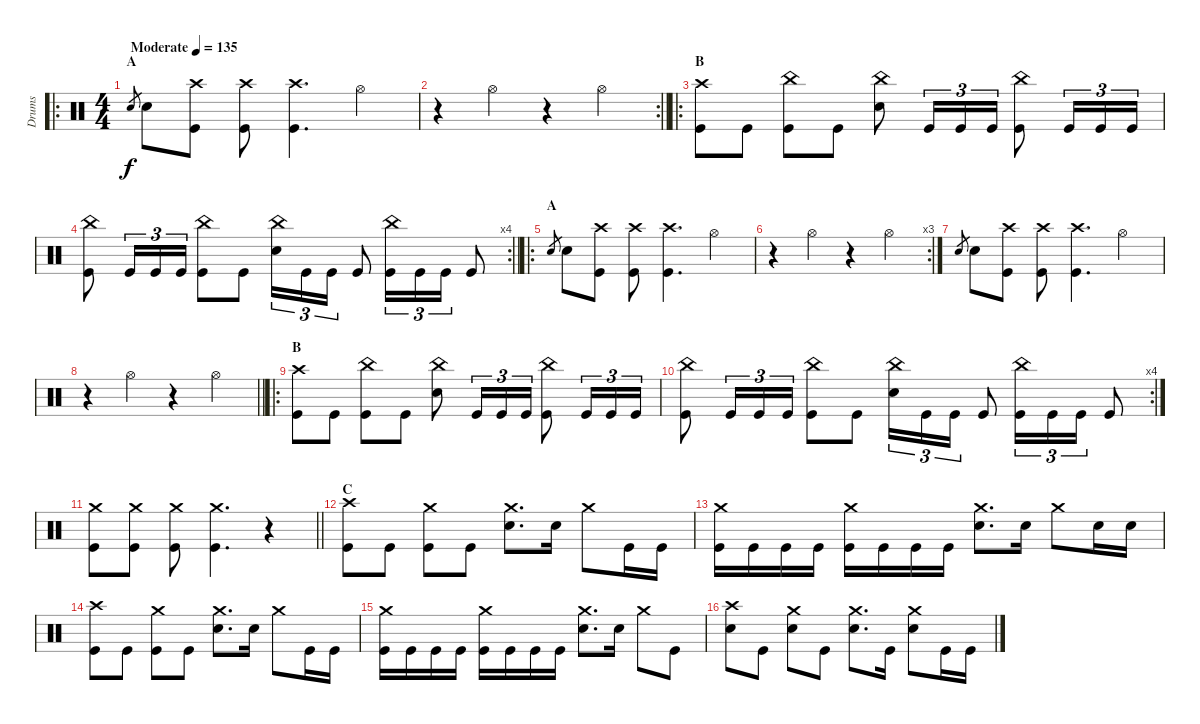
\track ("Drums" "Drums") {instrument percussion}
\staff {score}
\articulation defaults
\ro
\ts (4 4)
\section ("" "A")
\tempo (135 "Moderate")
\clef neutral
\ks c "Electric Snare (hit)".8{gr dy f} "Electric Snare (hit)".8
("Crash high (hit)" "Kick (hit)").8 ("Crash high (hit)" "Kick (hit)").8 ("Crash high (hit)" "Kick (hit)").4{d} "Hi-Hat (open)".4 |
\rc 2
\barLineRight lightlight
r.4 "Hi-Hat (open)".4 r.4 "Hi-Hat (open)".4 |
\ro
\section ("" "B")
("Crash high (hit)" "Kick (hit)").8 "Kick (hit)".8 ("China (hit)" "Kick (hit)").8 "Kick (hit)".8 ("China (hit)" "Electric Snare (hit)").8 "Kick (hit)".16{tu (3 2)} "Kick (hit)".16{tu (3 2)} "Kick (hit)".16{tu (3 2)} ("China (hit)" "Kick (hit)").8 "Kick (hit)".16{tu (3 2)} "Kick (hit)".16{tu (3 2)} "Kick (hit)".16{tu (3 2)} |
\rc 4
\barLineRight lightlight
("China (hit)" "Kick (hit)").8 "Kick (hit)".16{tu (3 2)} "Kick (hit)".16{tu (3 2)} "Kick (hit)".16{tu (3 2)} ("China (hit)" "Kick (hit)").8 "Kick (hit)".8 ("China (hit)" "Electric Snare (hit)").16{tu (3 2)} "Kick (hit)".16{tu (3 2)} "Kick (hit)".16{tu (3 2)} "Kick (hit)".8 ("China (hit)" "Kick (hit)").16{tu (3 2)} "Kick (hit)".16{tu (3 2)} "Kick (hit)".16{tu (3 2)} "Kick (hit)".8 |
\ro
\section ("" "A")
"Electric Snare (hit)".8{gr} "Electric Snare (hit)".8 ("Crash high (hit)" "Kick (hit)").8 ("Crash high (hit)" "Kick (hit)").8 ("Crash high (hit)" "Kick (hit)").4{d} "Hi-Hat (open)".4 |
\rc 3
r.4 "Hi-Hat (open)".4 r.4 "Hi-Hat (open)".4 |
"Electric Snare (hit)".8{gr} "Electric Snare (hit)".8 ("Crash high (hit)" "Kick (hit)").8 ("Crash high (hit)" "Kick (hit)").8 ("Crash high (hit)" "Kick (hit)").4{d} "Hi-Hat (open)".4 |
\barLineRight lightlight
r.4 "Hi-Hat (open)".4 r.4 "Hi-Hat (open)".4 |
\ro
\section ("" "B")
("Crash high (hit)" "Kick (hit)").8 "Kick (hit)".8 ("China (hit)" "Kick (hit)").8 "Kick (hit)".8 ("China (hit)" "Electric Snare (hit)").8 "Kick (hit)".16{tu (3 2)} "Kick (hit)".16{tu (3 2)} "Kick (hit)".16{tu (3 2)} ("China (hit)" "Kick (hit)").8 "Kick (hit)".16{tu (3 2)} "Kick (hit)".16{tu (3 2)} "Kick (hit)".16{tu (3 2)} |
\rc 4
("China (hit)" "Kick (hit)").8 "Kick (hit)".16{tu (3 2)} "Kick (hit)".16{tu (3 2)} "Kick (hit)".16{tu (3 2)} ("China (hit)" "Kick (hit)").8 "Kick (hit)".8 ("China (hit)" "Electric Snare (hit)").16{tu (3 2)} "Kick (hit)".16{tu (3 2)} "Kick (hit)".16{tu (3 2)} "Kick (hit)".8 ("China (hit)" "Kick (hit)").16{tu (3 2)} "Kick (hit)".16{tu (3 2)} "Kick (hit)".16{tu (3 2)} "Kick (hit)".8 |
\barLineRight lightlight
("Crash medium (hit)" "Kick (hit)").8 ("Crash medium (hit)" "Kick (hit)").8 ("Crash medium (hit)" "Kick (hit)").8 ("Crash medium (hit)" "Kick (hit)").4{d} r.4 |
\section ("" "C")
("Crash high (hit)" "Kick (hit)").8 "Kick (hit)".8 ("Crash medium (hit)" "Kick (hit)").8 "Kick (hit)".8 ("Crash medium (hit)" "Electric Snare (hit)").8{d} "Electric Snare (hit)".16 "Crash medium (hit)".8 "Kick (hit)".16 "Kick (hit)".16 |
("Crash medium (hit)" "Kick (hit)").16 "Kick (hit)".16 "Kick (hit)".16 "Kick (hit)".16 ("Crash medium (hit)" "Kick (hit)").16 "Kick (hit)".16 "Kick (hit)".16 "Kick (hit)".16 ("Crash medium (hit)" "Electric Snare (hit)").8{d} "Electric Snare (hit)".16 "Crash medium (hit)".8 "Electric Snare (hit)".16 "Electric Snare (hit)".16 |
("Crash high (hit)" "Kick (hit)").8 "Kick (hit)".8 ("Crash medium (hit)" "Kick (hit)").8 "Kick (hit)".8 ("Crash medium (hit)" "Electric Snare (hit)").8{d} "Electric Snare (hit)".16 "Crash medium (hit)".8 "Kick (hit)".16 "Kick (hit)".16 |
("Crash medium (hit)" "Kick (hit)").16 "Kick (hit)".16 "Kick (hit)".16 "Kick (hit)".16 ("Crash medium (hit)" "Kick (hit)").16 "Kick (hit)".16 "Kick (hit)".16 "Kick (hit)".16 ("Crash medium (hit)" "Electric Snare (hit)").8{d} "Electric Snare (hit)".16 "Crash medium (hit)".8 "Kick (hit)".8 |
("Crash high (hit)" "Electric Snare (hit)").8 "Kick (hit)".8 ("Crash medium (hit)" "Electric Snare (hit)").8 "Kick (hit)".8 ("Crash medium (hit)" "Electric Snare (hit)").8{d} "Kick (hit)".16 ("Crash medium (hit)" "Electric Snare (hit)").8 "Kick (hit)".16 "Kick (hit)".16
